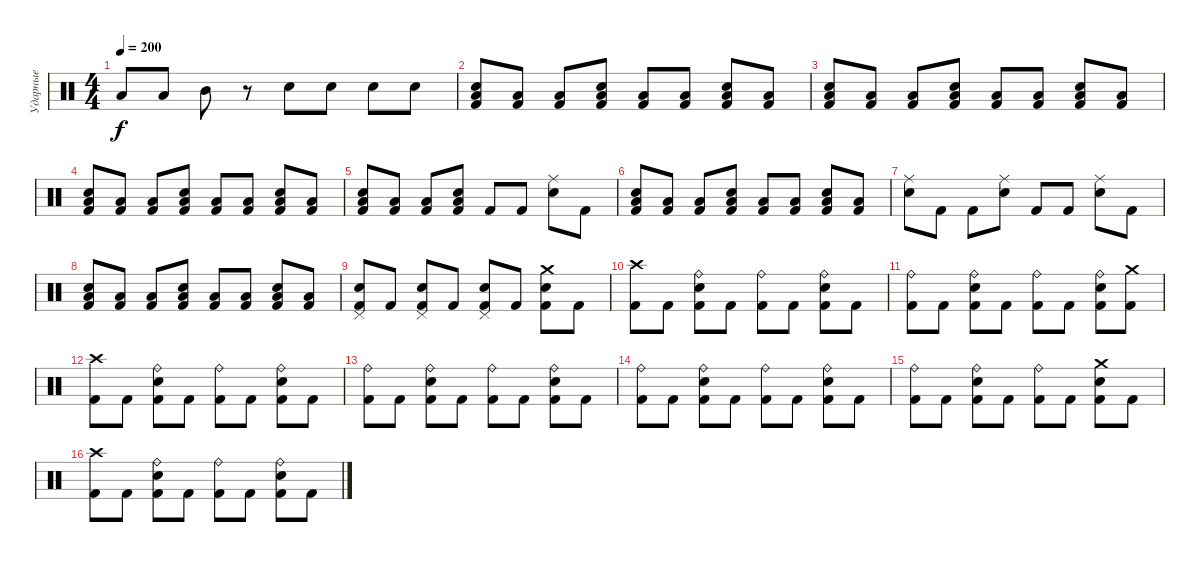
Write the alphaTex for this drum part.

\track ("Ударные" "Ударные") {instrument percussion}
\staff
\articulation defaults
\ts (4 4)
\tempo 200
\clef neutral
\ks c "Low Floor Tom (hit)".8{dy f} "Low Floor Tom (hit)".8 "Mid Tom (hit)".8
r.8 "Snare (hit) 2".8 "Snare (hit) 2".8 "Snare (hit) 2".8 "Snare (hit) 2".8 |
("Low Floor Tom (hit)" "Kick (hit) 2" "Snare (hit) 2").8 ("Low Floor Tom (hit)" "Kick (hit) 2").8 ("Low Floor Tom (hit)" "Kick (hit) 2").8 ("Low Floor Tom (hit)" "Kick (hit) 2" "Snare (hit) 2").8 ("Low Floor Tom (hit)" "Kick (hit) 2").8 ("Low Floor Tom (hit)" "Kick (hit) 2").8 ("Low Floor Tom (hit)" "Kick (hit) 2" "Snare (hit) 2").8 ("Low Floor Tom (hit)" "Kick (hit) 2").8 |
("Low Floor Tom (hit)" "Kick (hit) 2" "Snare (hit) 2").8 ("Low Floor Tom (hit)" "Kick (hit) 2").8 ("Low Floor Tom (hit)" "Kick (hit) 2").8 ("Low Floor Tom (hit)" "Kick (hit) 2" "Snare (hit) 2").8 ("Low Floor Tom (hit)" "Kick (hit) 2").8 ("Low Floor Tom (hit)" "Kick (hit) 2").8 ("Low Floor Tom (hit)" "Kick (hit) 2" "Snare (hit) 2").8 ("Low Floor Tom (hit)" "Kick (hit) 2").8 |
("Low Floor Tom (hit)" "Kick (hit) 2" "Snare (hit) 2").8 ("Low Floor Tom (hit)" "Kick (hit) 2").8 ("Low Floor Tom (hit)" "Kick (hit) 2").8 ("Low Floor Tom (hit)" "Kick (hit) 2" "Snare (hit) 2").8 ("Low Floor Tom (hit)" "Kick (hit) 2").8 ("Low Floor Tom (hit)" "Kick (hit) 2").8 ("Low Floor Tom (hit)" "Kick (hit) 2" "Snare (hit) 2").8 ("Low Floor Tom (hit)" "Kick (hit) 2").8 |
("Low Floor Tom (hit)" "Kick (hit) 2" "Snare (hit) 2").8 ("Low Floor Tom (hit)" "Kick (hit) 2").8 ("Low Floor Tom (hit)" "Kick (hit) 2").8 ("Low Floor Tom (hit)" "Kick (hit) 2" "Snare (hit) 2").8 "Kick (hit) 2".8 "Kick (hit) 2".8 ("Snare (hit) 2" "Ride (middle)").8 "Kick (hit) 2".8 |
("Low Floor Tom (hit)" "Kick (hit) 2" "Snare (hit) 2").8 ("Low Floor Tom (hit)" "Kick (hit) 2").8 ("Low Floor Tom (hit)" "Kick (hit) 2").8 ("Low Floor Tom (hit)" "Kick (hit) 2" "Snare (hit) 2").8 ("Low Floor Tom (hit)" "Kick (hit) 2").8 ("Low Floor Tom (hit)" "Kick (hit) 2").8 ("Low Floor Tom (hit)" "Kick (hit) 2" "Snare (hit) 2").8 ("Low Floor Tom (hit)" "Kick (hit) 2").8 |
("Snare (hit) 2" "Ride (middle)").8 "Kick (hit) 2".8 "Kick (hit) 2".8 ("Snare (hit) 2" "Ride (middle)").8 "Kick (hit) 2".8 "Kick (hit) 2".8 ("Snare (hit) 2" "Ride (middle)").8 "Kick (hit) 2".8 |
("Low Floor Tom (hit)" "Kick (hit) 2" "Snare (hit) 2").8 ("Low Floor Tom (hit)" "Kick (hit) 2").8 ("Low Floor Tom (hit)" "Kick (hit) 2").8 ("Low Floor Tom (hit)" "Kick (hit) 2" "Snare (hit) 2").8 ("Low Floor Tom (hit)" "Kick (hit) 2").8 ("Low Floor Tom (hit)" "Kick (hit) 2").8 ("Low Floor Tom (hit)" "Kick (hit) 2" "Snare (hit) 2").8 ("Low Floor Tom (hit)" "Kick (hit) 2").8 |
("Kick (hit) 2" "Snare (hit) 2" "Pedal Hi-Hat (hit)").8 "Kick (hit) 2".8 ("Kick (hit) 2" "Snare (hit) 2" "Pedal Hi-Hat (hit)").8 "Kick (hit) 2".8 ("Kick (hit) 2" "Snare (hit) 2" "Pedal Hi-Hat (hit)").8 "Kick (hit) 2".8 ("Kick (hit) 2" "Snare (hit) 2" "Crash medium (hit)").8 "Kick (hit) 2".8 |
("Kick (hit) 2" "Crash high (hit)").8 "Kick (hit) 2".8 ("Kick (hit) 2" "Snare (hit) 2" "Ride (bell)").8 "Kick (hit) 2".8 ("Kick (hit) 2" "Ride (bell)").8 "Kick (hit) 2".8 ("Kick (hit) 2" "Snare (hit) 2" "Ride (bell)").8 "Kick (hit) 2".8 |
("Kick (hit) 2" "Ride (bell)").8 "Kick (hit) 2".8 ("Kick (hit) 2" "Snare (hit) 2" "Ride (bell)").8 "Kick (hit) 2".8 ("Kick (hit) 2" "Ride (bell)").8 "Kick (hit) 2".8 ("Kick (hit) 2" "Snare (hit) 2" "Ride (bell)").8 ("Kick (hit) 2" "Crash medium (hit)").8 |
("Kick (hit) 2" "Crash high (hit)").8 "Kick (hit) 2".8 ("Kick (hit) 2" "Snare (hit) 2" "Ride (bell)").8 "Kick (hit) 2".8 ("Kick (hit) 2" "Ride (bell)").8 "Kick (hit) 2".8 ("Kick (hit) 2" "Snare (hit) 2" "Ride (bell)").8 "Kick (hit) 2".8 |
("Kick (hit) 2" "Ride (bell)").8 "Kick (hit) 2".8 ("Kick (hit) 2" "Snare (hit) 2" "Ride (bell)").8 "Kick (hit) 2".8 ("Kick (hit) 2" "Ride (bell)").8 "Kick (hit) 2".8 ("Kick (hit) 2" "Snare (hit) 2" "Ride (bell)").8 "Kick (hit) 2".8 |
("Kick (hit) 2" "Ride (bell)").8 "Kick (hit) 2".8 ("Kick (hit) 2" "Snare (hit) 2" "Ride (bell)").8 "Kick (hit) 2".8 ("Kick (hit) 2" "Ride (bell)").8 "Kick (hit) 2".8 ("Kick (hit) 2" "Snare (hit) 2" "Ride (bell)").8 "Kick (hit) 2".8 |
("Kick (hit) 2" "Ride (bell)").8 "Kick (hit) 2".8 ("Kick (hit) 2" "Snare (hit) 2" "Ride (bell)").8 "Kick (hit) 2".8 ("Kick (hit) 2" "Ride (bell)").8 "Kick (hit) 2".8 ("Kick (hit) 2" "Snare (hit) 2" "Crash medium (hit)").8 "Kick (hit) 2".8 |
("Kick (hit) 2" "Crash high (hit)").8 "Kick (hit) 2".8 ("Kick (hit) 2" "Snare (hit) 2" "Ride (bell)").8 "Kick (hit) 2".8 ("Kick (hit) 2" "Ride (bell)").8 "Kick (hit) 2".8 ("Kick (hit) 2" "Snare (hit) 2" "Ride (bell)").8 "Kick (hit) 2".8
